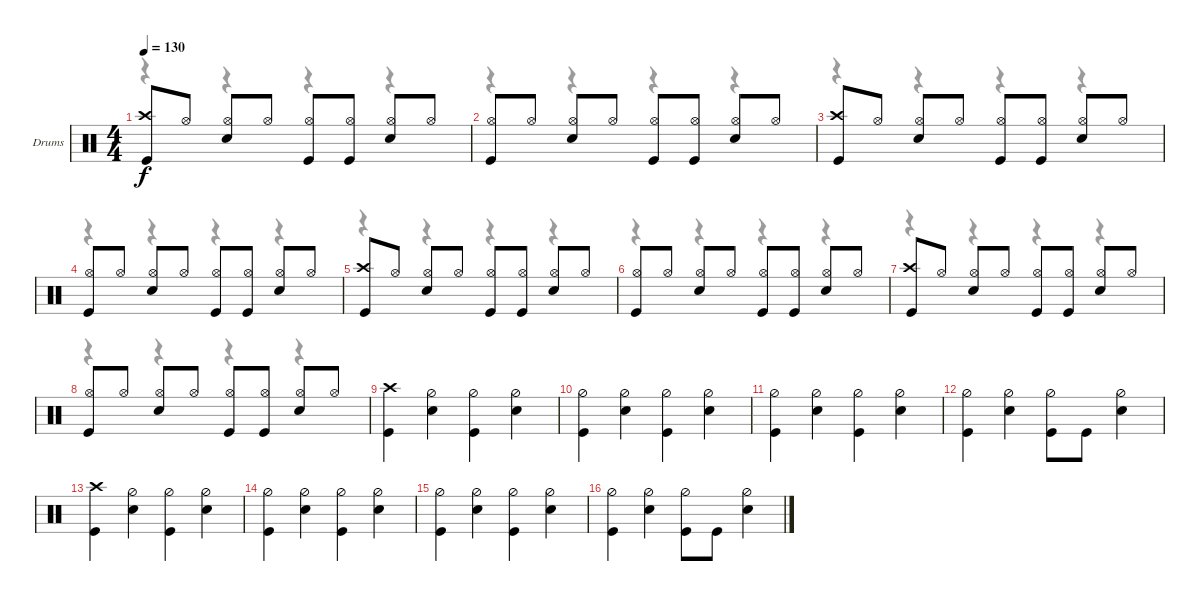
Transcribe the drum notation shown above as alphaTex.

\bracketExtendMode groupsimilarinstruments
\firstSystemTrackNameOrientation horizontal
\otherSystemsTrackNameOrientation horizontal
\track ("Drumkit" "Drums") {instrument percussion}
\staff {score}
\articulation defaults
\voice
\ts (4 4)
\tempo 130
\clef neutral
\ks c
("Crash high (hit)" "Kick (hit)").8{dy f} "Hi-Hat (open)".8 ("Hi-Hat (open)" "Snare (hit) 2").8 "Hi-Hat (open)".8 ("Hi-Hat (open)" "Kick (hit)").8 ("Hi-Hat (open)" "Kick (hit)").8 ("Hi-Hat (open)" "Snare (hit) 2").8 "Hi-Hat (open)".8 |
("Hi-Hat (open)" "Kick (hit)").8 "Hi-Hat (open)".8 ("Hi-Hat (open)" "Snare (hit) 2").8 "Hi-Hat (open)".8 ("Hi-Hat (open)" "Kick (hit)").8 ("Hi-Hat (open)" "Kick (hit)").8 ("Hi-Hat (open)" "Snare (hit) 2").8 "Hi-Hat (open)".8 |
("Crash high (hit)" "Kick (hit)").8 "Hi-Hat (open)".8 ("Hi-Hat (open)" "Snare (hit) 2").8 "Hi-Hat (open)".8 ("Hi-Hat (open)" "Kick (hit)").8 ("Hi-Hat (open)" "Kick (hit)").8 ("Hi-Hat (open)" "Snare (hit) 2").8 "Hi-Hat (open)".8 |
("Hi-Hat (open)" "Kick (hit)").8 "Hi-Hat (open)".8 ("Hi-Hat (open)" "Snare (hit) 2").8 "Hi-Hat (open)".8 ("Hi-Hat (open)" "Kick (hit)").8 ("Hi-Hat (open)" "Kick (hit)").8 ("Hi-Hat (open)" "Snare (hit) 2").8 "Hi-Hat (open)".8 |
("Crash high (hit)" "Kick (hit)").8 "Hi-Hat (open)".8 ("Hi-Hat (open)" "Snare (hit) 2").8 "Hi-Hat (open)".8 ("Hi-Hat (open)" "Kick (hit)").8 ("Hi-Hat (open)" "Kick (hit)").8 ("Hi-Hat (open)" "Snare (hit) 2").8 "Hi-Hat (open)".8 |
("Hi-Hat (open)" "Kick (hit)").8 "Hi-Hat (open)".8 ("Hi-Hat (open)" "Snare (hit) 2").8 "Hi-Hat (open)".8 ("Hi-Hat (open)" "Kick (hit)").8 ("Hi-Hat (open)" "Kick (hit)").8 ("Hi-Hat (open)" "Snare (hit) 2").8 "Hi-Hat (open)".8 |
("Crash high (hit)" "Kick (hit)").8 "Hi-Hat (open)".8 ("Hi-Hat (open)" "Snare (hit) 2").8 "Hi-Hat (open)".8 ("Hi-Hat (open)" "Kick (hit)").8 ("Hi-Hat (open)" "Kick (hit)").8 ("Hi-Hat (open)" "Snare (hit) 2").8 "Hi-Hat (open)".8 |
("Hi-Hat (open)" "Kick (hit)").8 "Hi-Hat (open)".8 ("Hi-Hat (open)" "Snare (hit) 2").8 "Hi-Hat (open)".8 ("Hi-Hat (open)" "Kick (hit)").8 ("Hi-Hat (open)" "Kick (hit)").8 ("Hi-Hat (open)" "Snare (hit) 2").8 "Hi-Hat (open)".8 |
("Kick (hit)" "Crash high (hit)").4 ("Snare (hit) 2" "Hi-Hat (half)").4 ("Kick (hit)" "Hi-Hat (half)").4 ("Snare (hit) 2" "Hi-Hat (half)").4 |
("Kick (hit)" "Hi-Hat (half)").4 ("Snare (hit) 2" "Hi-Hat (half)").4 ("Kick (hit)" "Hi-Hat (half)").4 ("Snare (hit) 2" "Hi-Hat (half)").4 |
("Kick (hit)" "Hi-Hat (half)").4 ("Snare (hit) 2" "Hi-Hat (half)").4 ("Kick (hit)" "Hi-Hat (half)").4 ("Snare (hit) 2" "Hi-Hat (half)").4 |
("Kick (hit)" "Hi-Hat (half)").4 ("Snare (hit) 2" "Hi-Hat (half)").4 ("Kick (hit)" "Hi-Hat (half)").8 "Kick (hit)".8 ("Hi-Hat (half)" "Snare (hit) 2").4 |
("Kick (hit)" "Crash high (hit)").4 ("Snare (hit) 2" "Hi-Hat (half)").4 ("Kick (hit)" "Hi-Hat (half)").4 ("Snare (hit) 2" "Hi-Hat (half)").4 |
("Kick (hit)" "Hi-Hat (half)").4 ("Snare (hit) 2" "Hi-Hat (half)").4 ("Kick (hit)" "Hi-Hat (half)").4 ("Snare (hit) 2" "Hi-Hat (half)").4 |
("Kick (hit)" "Hi-Hat (half)").4 ("Snare (hit) 2" "Hi-Hat (half)").4 ("Kick (hit)" "Hi-Hat (half)").4 ("Snare (hit) 2" "Hi-Hat (half)").4 |
("Kick (hit)" "Hi-Hat (half)").4 ("Snare (hit) 2" "Hi-Hat (half)").4 ("Kick (hit)" "Hi-Hat (half)").8 "Kick (hit)".8 ("Hi-Hat (half)" "Snare (hit) 2").4
\voice
\clef neutral
\ottava regular
\simile none
\ks c
r.4{dy mf} r.4 r.4 r.4 |
r.4 r.4 r.4 r.4 |
r.4 r.4 r.4 r.4 |
r.4 r.4 r.4 r.4 |
r.4 r.4 r.4 r.4 |
r.4 r.4 r.4 r.4 |
r.4 r.4 r.4 r.4 |
r.4 r.4 r.4 r.4 |
|
|
|
|
|
|
|
